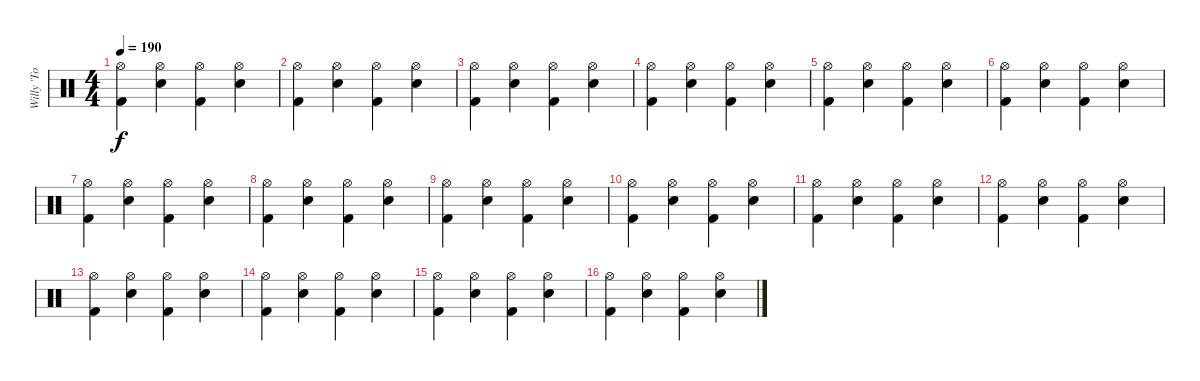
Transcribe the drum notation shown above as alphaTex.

\track ("Willy 'To Big' Hall" "Willy 'To ") {instrument percussion}
\staff {score}
\articulation defaults
\ts (4 4)
\tempo 190
\clef neutral
\ks c
("Hi-Hat (open)" "Kick (hit) 2").4{dy f} ("Hi-Hat (open)" "Snare (hit) 2").4 ("Hi-Hat (open)" "Kick (hit) 2").4 ("Hi-Hat (open)" "Snare (hit) 2").4 |
("Hi-Hat (open)" "Kick (hit) 2").4 ("Hi-Hat (open)" "Snare (hit) 2").4 ("Hi-Hat (open)" "Kick (hit) 2").4 ("Hi-Hat (open)" "Snare (hit) 2").4 |
("Hi-Hat (open)" "Kick (hit) 2").4 ("Hi-Hat (open)" "Snare (hit) 2").4 ("Hi-Hat (open)" "Kick (hit) 2").4 ("Hi-Hat (open)" "Snare (hit) 2").4 |
("Hi-Hat (open)" "Kick (hit) 2").4 ("Hi-Hat (open)" "Snare (hit) 2").4 ("Hi-Hat (open)" "Kick (hit) 2").4 ("Hi-Hat (open)" "Snare (hit) 2").4 |
("Hi-Hat (open)" "Kick (hit) 2").4 ("Hi-Hat (open)" "Snare (hit) 2").4 ("Hi-Hat (open)" "Kick (hit) 2").4 ("Hi-Hat (open)" "Snare (hit) 2").4 |
("Hi-Hat (open)" "Kick (hit) 2").4 ("Hi-Hat (open)" "Snare (hit) 2").4 ("Hi-Hat (open)" "Kick (hit) 2").4 ("Hi-Hat (open)" "Snare (hit) 2").4 |
("Hi-Hat (open)" "Kick (hit) 2").4 ("Hi-Hat (open)" "Snare (hit) 2").4 ("Hi-Hat (open)" "Kick (hit) 2").4 ("Hi-Hat (open)" "Snare (hit) 2").4 |
("Hi-Hat (open)" "Kick (hit) 2").4 ("Hi-Hat (open)" "Snare (hit) 2").4 ("Hi-Hat (open)" "Kick (hit) 2").4 ("Hi-Hat (open)" "Snare (hit) 2").4 |
("Hi-Hat (open)" "Kick (hit) 2").4 ("Hi-Hat (open)" "Snare (hit) 2").4 ("Hi-Hat (open)" "Kick (hit) 2").4 ("Hi-Hat (open)" "Snare (hit) 2").4 |
("Hi-Hat (open)" "Kick (hit) 2").4 ("Hi-Hat (open)" "Snare (hit) 2").4 ("Hi-Hat (open)" "Kick (hit) 2").4 ("Hi-Hat (open)" "Snare (hit) 2").4 |
("Hi-Hat (open)" "Kick (hit) 2").4 ("Hi-Hat (open)" "Snare (hit) 2").4 ("Hi-Hat (open)" "Kick (hit) 2").4 ("Hi-Hat (open)" "Snare (hit) 2").4 |
("Hi-Hat (open)" "Kick (hit) 2").4 ("Hi-Hat (open)" "Snare (hit) 2").4 ("Hi-Hat (open)" "Kick (hit) 2").4 ("Hi-Hat (open)" "Snare (hit) 2").4 |
("Hi-Hat (open)" "Kick (hit) 2").4 ("Hi-Hat (open)" "Snare (hit) 2").4 ("Hi-Hat (open)" "Kick (hit) 2").4 ("Hi-Hat (open)" "Snare (hit) 2").4 |
("Hi-Hat (open)" "Kick (hit) 2").4 ("Hi-Hat (open)" "Snare (hit) 2").4 ("Hi-Hat (open)" "Kick (hit) 2").4 ("Hi-Hat (open)" "Snare (hit) 2").4 |
("Hi-Hat (open)" "Kick (hit) 2").4 ("Hi-Hat (open)" "Snare (hit) 2").4 ("Hi-Hat (open)" "Kick (hit) 2").4 ("Hi-Hat (open)" "Snare (hit) 2").4 |
("Hi-Hat (open)" "Kick (hit) 2").4 ("Hi-Hat (open)" "Snare (hit) 2").4 ("Hi-Hat (open)" "Kick (hit) 2").4 ("Hi-Hat (open)" "Snare (hit) 2").4
